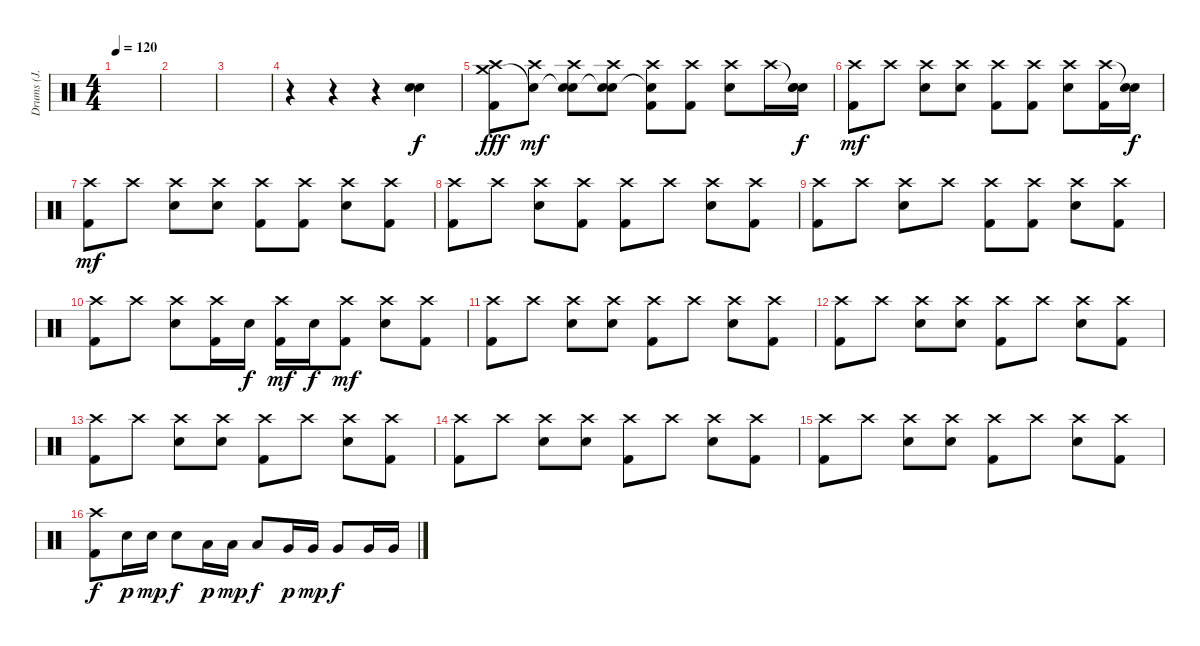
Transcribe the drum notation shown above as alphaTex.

\track ("Drums (J. Cramer)" "Drums (J. ") {instrument percussion}
\staff {score}
\articulation defaults
\ts (4 4)
\tempo 120
\clef neutral
\ks c
|
|
|
r.4 r.4 r.4 ("Electric Snare (hit)" "Electric Snare (hit)").4{bd 120} |
("Crash high (hit)" "Crash medium (hit)" "Kick (hit) 2").8{dy fff} ("Crash high (hit)" "Snare (hit)"{t}).8{dy mf} ("Crash high (hit)" "Snare (hit)"{t} "Electric Snare (hit)").8 ("Crash high (hit)" "Snare (hit)"{t} "Electric Snare (hit)").8 ("Crash high (hit)" "Snare (hit)"{t} "Kick (hit) 2").8 ("Crash high (hit)" "Kick (hit) 2").8 ("Crash high (hit)" "Electric Snare (hit)").8 "Crash high (hit)".16 ("Snare (hit)"{t} "Electric Snare (hit)" "Electric Snare (hit)").16{bd 120 dy f} |
("Crash high (hit)" "Kick (hit) 2").8{dy mf} "Crash high (hit)".8 ("Crash high (hit)" "Electric Snare (hit)").8 ("Crash high (hit)" "Electric Snare (hit)").8 ("Crash high (hit)" "Kick (hit) 2").8 ("Crash high (hit)" "Kick (hit) 2").8 ("Crash high (hit)" "Electric Snare (hit)").8 ("Crash high (hit)" "Kick (hit) 2").16 ("Snare (hit)"{t} "Electric Snare (hit)").16{dy f} |
("Crash high (hit)" "Kick (hit) 2").8{dy mf} "Crash high (hit)".8 ("Crash high (hit)" "Electric Snare (hit)").8 ("Crash high (hit)" "Electric Snare (hit)").8 ("Crash high (hit)" "Kick (hit) 2").8 ("Crash high (hit)" "Kick (hit) 2").8 ("Crash high (hit)" "Electric Snare (hit)").8 ("Crash high (hit)" "Kick (hit) 2").8 |
("Crash high (hit)" "Kick (hit) 2").8 "Crash high (hit)".8 ("Crash high (hit)" "Electric Snare (hit)").8 ("Crash high (hit)" "Kick (hit) 2").8 ("Crash high (hit)" "Kick (hit) 2").8 "Crash high (hit)".8 ("Crash high (hit)" "Electric Snare (hit)").8 ("Crash high (hit)" "Kick (hit) 2").8 |
("Crash high (hit)" "Kick (hit) 2").8 "Crash high (hit)".8 ("Crash high (hit)" "Electric Snare (hit)").8 "Crash high (hit)".8 ("Crash high (hit)" "Kick (hit) 2").8 ("Crash high (hit)" "Kick (hit) 2").8 ("Crash high (hit)" "Electric Snare (hit)").8 ("Crash high (hit)" "Kick (hit) 2").8 |
("Crash high (hit)" "Kick (hit) 2").8 "Crash high (hit)".8 ("Crash high (hit)" "Electric Snare (hit)").8 ("Crash high (hit)" "Kick (hit) 2").16 "Electric Snare (hit)".16{dy f} ("Crash high (hit)" "Kick (hit) 2").16{dy mf} "Electric Snare (hit)".16{dy f} ("Crash high (hit)" "Kick (hit) 2").8{dy mf} ("Crash high (hit)" "Electric Snare (hit)").8 ("Crash high (hit)" "Kick (hit) 2").8 |
("Crash high (hit)" "Kick (hit) 2").8 "Crash high (hit)".8 ("Crash high (hit)" "Electric Snare (hit)").8 ("Crash high (hit)" "Electric Snare (hit)").8 ("Crash high (hit)" "Kick (hit) 2").8 "Crash high (hit)".8 ("Crash high (hit)" "Electric Snare (hit)").8 ("Crash high (hit)" "Kick (hit) 2").8 |
("Crash high (hit)" "Kick (hit) 2").8 "Crash high (hit)".8 ("Crash high (hit)" "Electric Snare (hit)").8 ("Crash high (hit)" "Electric Snare (hit)").8 ("Crash high (hit)" "Kick (hit) 2").8 "Crash high (hit)".8 ("Crash high (hit)" "Electric Snare (hit)").8 ("Crash high (hit)" "Kick (hit) 2").8 |
("Crash high (hit)" "Kick (hit) 2").8 "Crash high (hit)".8 ("Crash high (hit)" "Electric Snare (hit)").8 ("Crash high (hit)" "Electric Snare (hit)").8 ("Crash high (hit)" "Kick (hit) 2").8 "Crash high (hit)".8 ("Crash high (hit)" "Electric Snare (hit)").8 ("Crash high (hit)" "Kick (hit) 2").8 |
("Crash high (hit)" "Kick (hit) 2").8 "Crash high (hit)".8 ("Crash high (hit)" "Electric Snare (hit)").8 ("Crash high (hit)" "Electric Snare (hit)").8 ("Crash high (hit)" "Kick (hit) 2").8 "Crash high (hit)".8 ("Crash high (hit)" "Electric Snare (hit)").8 ("Crash high (hit)" "Kick (hit) 2").8 |
("Crash high (hit)" "Kick (hit) 2").8 "Crash high (hit)".8 ("Crash high (hit)" "Electric Snare (hit)").8 ("Crash high (hit)" "Electric Snare (hit)").8 ("Crash high (hit)" "Kick (hit) 2").8 "Crash high (hit)".8 ("Crash high (hit)" "Electric Snare (hit)").8 ("Crash high (hit)" "Kick (hit) 2").8 |
("Crash high (hit)" "Kick (hit) 2").8{dy f} "Electric Snare (hit)".16{dy p} "Electric Snare (hit)".16{dy mp} "Electric Snare (hit)".8{dy f} "Low Tom (hit)".16{dy p balance 14} "Low Tom (hit)".16{dy mp} "Low Tom (hit)".8{dy f} "Very Low Tom (hit)".16{dy p balance 2} "Very Low Tom (hit)".16{dy mp} "Very Low Tom (hit)".8{dy f} "Very Low Tom (hit)".16 "Very Low Tom (hit)".16
